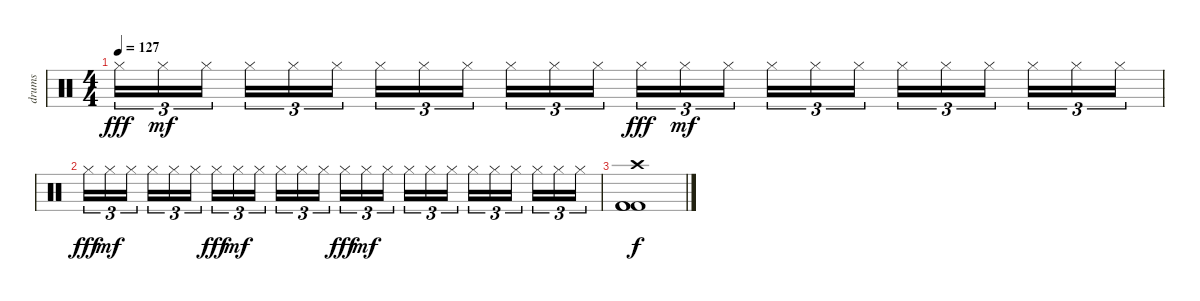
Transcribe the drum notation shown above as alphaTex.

\track ("drums" "drums") {instrument percussion}
\staff {score}
\articulation defaults
\ts (4 4)
\tempo 127
\clef neutral
\ks c "Hi-Hat (closed)".16{tu (3 2) dy fff} "Hi-Hat (closed)".16{tu (3 2) dy mf} "Hi-Hat (closed)".16{tu (3 2)} "Hi-Hat (closed)".16{tu (3 2)} "Hi-Hat (closed)".16{tu (3 2)} "Hi-Hat (closed)".16{tu (3 2)} "Hi-Hat (closed)".16{tu (3 2)} "Hi-Hat (closed)".16{tu (3 2)} "Hi-Hat (closed)".16{tu (3 2)} "Hi-Hat (closed)".16{tu (3 2)} "Hi-Hat (closed)".16{tu (3 2)} "Hi-Hat (closed)".16{tu (3 2)} "Hi-Hat (closed)".16{tu (3 2) dy fff} "Hi-Hat (closed)".16{tu (3 2) dy mf} "Hi-Hat (closed)".16{tu (3 2)} "Hi-Hat (closed)".16{tu (3 2)} "Hi-Hat (closed)".16{tu (3 2)} "Hi-Hat (closed)".16{tu (3 2)} "Hi-Hat (closed)".16{tu (3 2)} "Hi-Hat (closed)".16{tu (3 2)} "Hi-Hat (closed)".16{tu (3 2)} "Hi-Hat (closed)".16{tu (3 2)} "Hi-Hat (closed)".16{tu (3 2)} "Hi-Hat (closed)".16{tu (3 2)}
|
"Hi-Hat (closed)".16{tu (3 2) dy fff} "Hi-Hat (closed)".16{tu (3 2) dy mf} "Hi-Hat (closed)".16{tu (3 2)} "Hi-Hat (closed)".16{tu (3 2)} "Hi-Hat (closed)".16{tu (3 2)} "Hi-Hat (closed)".16{tu (3 2)} "Hi-Hat (closed)".16{tu (3 2) dy fff} "Hi-Hat (closed)".16{tu (3 2) dy mf} "Hi-Hat (closed)".16{tu (3 2)} "Hi-Hat (closed)".16{tu (3 2)} "Hi-Hat (closed)".16{tu (3 2)} "Hi-Hat (closed)".16{tu (3 2)} "Hi-Hat (closed)".16{tu (3 2) dy fff} "Hi-Hat (closed)".16{tu (3 2) dy mf} "Hi-Hat (closed)".16{tu (3 2)} "Hi-Hat (closed)".16{tu (3 2)} "Hi-Hat (closed)".16{tu (3 2)} "Hi-Hat (closed)".16{tu (3 2)} "Hi-Hat (closed)".16{tu (3 2)} "Hi-Hat (closed)".16{tu (3 2)} "Hi-Hat (closed)".16{tu (3 2)} "Hi-Hat (closed)".16{tu (3 2)} "Hi-Hat (closed)".16{tu (3 2)} "Hi-Hat (closed)".16{tu (3 2)} |
("Crash high (hit)" "Kick (hit) 2" "Kick (hit) 2" "Kick (hit) 2").1{dy f}
